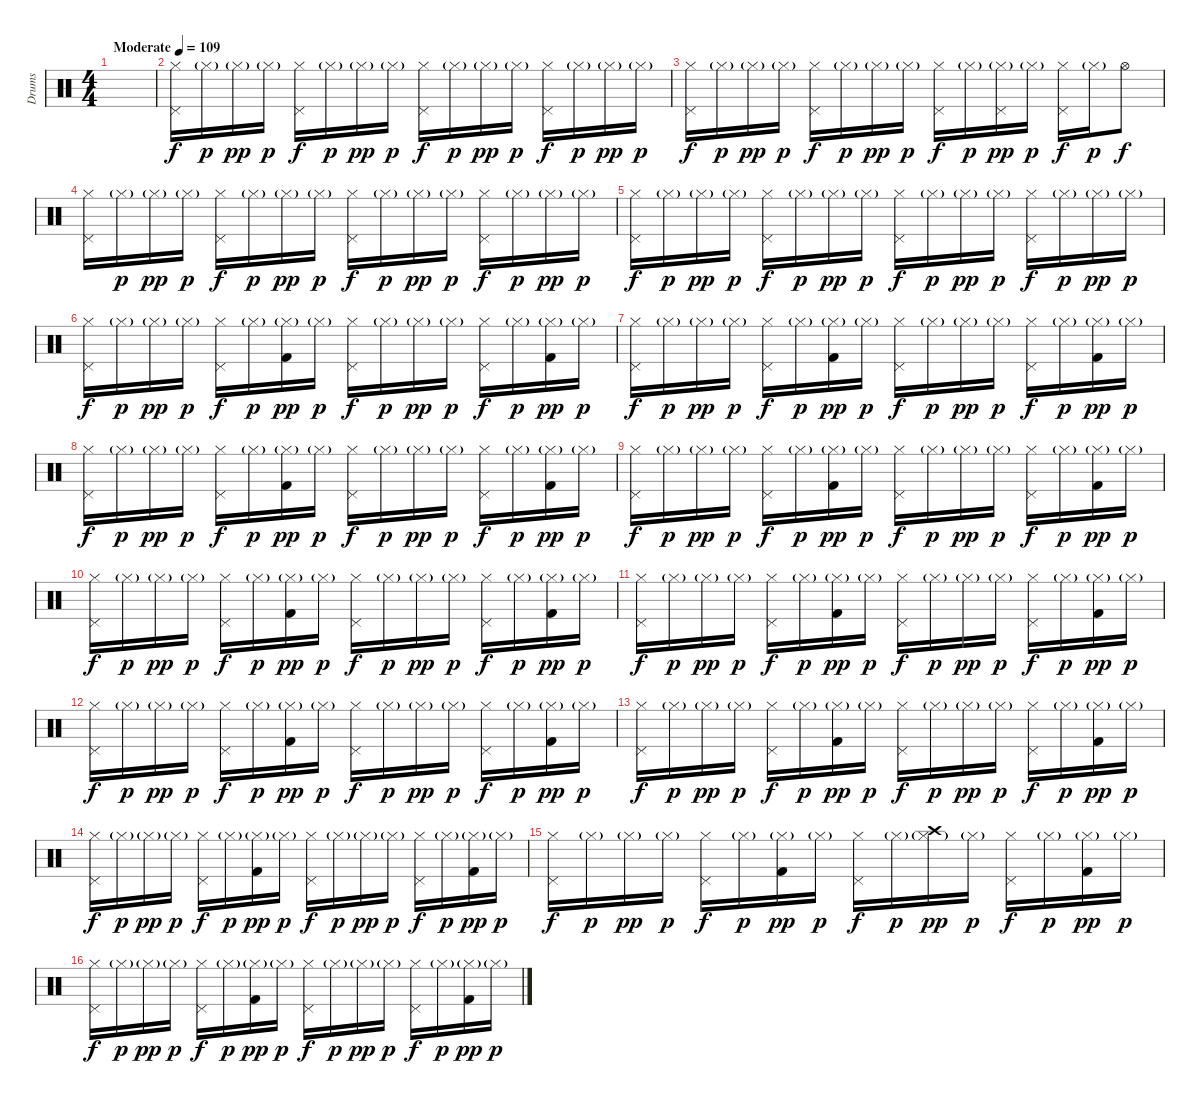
\track ("Drums" "Drums") {instrument percussion}
\staff {score}
\articulation defaults
\ts (4 4)
\tempo (109 "Moderate")
\clef neutral
\ks c
|
("Hi-Hat (closed)" "Pedal Hi-Hat (hit)").16 "Hi-Hat (closed)"{g}.16{dy p} "Hi-Hat (closed)"{g}.16{dy pp} "Hi-Hat (closed)"{g}.16{dy p} ("Hi-Hat (closed)" "Pedal Hi-Hat (hit)").16{dy f} "Hi-Hat (closed)"{g}.16{dy p} "Hi-Hat (closed)"{g}.16{dy pp} "Hi-Hat (closed)"{g}.16{dy p} ("Hi-Hat (closed)" "Pedal Hi-Hat (hit)").16{dy f} "Hi-Hat (closed)"{g}.16{dy p} "Hi-Hat (closed)"{g}.16{dy pp} "Hi-Hat (closed)"{g}.16{dy p} ("Hi-Hat (closed)" "Pedal Hi-Hat (hit)").16{dy f} "Hi-Hat (closed)"{g}.16{dy p} "Hi-Hat (closed)"{g}.16{dy pp} "Hi-Hat (closed)"{g}.16{dy p} |
("Hi-Hat (closed)" "Pedal Hi-Hat (hit)").16{dy f} "Hi-Hat (closed)"{g}.16{dy p} "Hi-Hat (closed)"{g}.16{dy pp} "Hi-Hat (closed)"{g}.16{dy p} ("Hi-Hat (closed)" "Pedal Hi-Hat (hit)").16{dy f} "Hi-Hat (closed)"{g}.16{dy p} "Hi-Hat (closed)"{g}.16{dy pp} "Hi-Hat (closed)"{g}.16{dy p} ("Hi-Hat (closed)" "Pedal Hi-Hat (hit)").16{dy f} "Hi-Hat (closed)"{g}.16{dy p} ("Hi-Hat (closed)"{g} "Pedal Hi-Hat (hit)").16{dy pp} "Hi-Hat (closed)"{g}.16{dy p} ("Hi-Hat (closed)" "Pedal Hi-Hat (hit)").16{dy f} "Hi-Hat (closed)"{g}.16{dy p} "Hi-Hat (open)".8{dy f} |
("Hi-Hat (closed)" "Pedal Hi-Hat (hit)").16 "Hi-Hat (closed)"{g}.16{dy p} "Hi-Hat (closed)"{g}.16{dy pp} "Hi-Hat (closed)"{g}.16{dy p} ("Hi-Hat (closed)" "Pedal Hi-Hat (hit)").16{dy f} "Hi-Hat (closed)"{g}.16{dy p} "Hi-Hat (closed)"{g}.16{dy pp} "Hi-Hat (closed)"{g}.16{dy p} ("Hi-Hat (closed)" "Pedal Hi-Hat (hit)").16{dy f} "Hi-Hat (closed)"{g}.16{dy p} "Hi-Hat (closed)"{g}.16{dy pp} "Hi-Hat (closed)"{g}.16{dy p} ("Hi-Hat (closed)" "Pedal Hi-Hat (hit)").16{dy f} "Hi-Hat (closed)"{g}.16{dy p} "Hi-Hat (closed)"{g}.16{dy pp} "Hi-Hat (closed)"{g}.16{dy p} |
("Hi-Hat (closed)" "Pedal Hi-Hat (hit)").16{dy f} "Hi-Hat (closed)"{g}.16{dy p} "Hi-Hat (closed)"{g}.16{dy pp} "Hi-Hat (closed)"{g}.16{dy p} ("Hi-Hat (closed)" "Pedal Hi-Hat (hit)").16{dy f} "Hi-Hat (closed)"{g}.16{dy p} "Hi-Hat (closed)"{g}.16{dy pp} "Hi-Hat (closed)"{g}.16{dy p} ("Hi-Hat (closed)" "Pedal Hi-Hat (hit)").16{dy f} "Hi-Hat (closed)"{g}.16{dy p} "Hi-Hat (closed)"{g}.16{dy pp} "Hi-Hat (closed)"{g}.16{dy p} ("Hi-Hat (closed)" "Pedal Hi-Hat (hit)").16{dy f} "Hi-Hat (closed)"{g}.16{dy p} "Hi-Hat (closed)"{g}.16{dy pp} "Hi-Hat (closed)"{g}.16{dy p} |
("Hi-Hat (closed)" "Pedal Hi-Hat (hit)").16{dy f} "Hi-Hat (closed)"{g}.16{dy p} "Hi-Hat (closed)"{g}.16{dy pp} "Hi-Hat (closed)"{g}.16{dy p} ("Hi-Hat (closed)" "Pedal Hi-Hat (hit)").16{dy f} "Hi-Hat (closed)"{g}.16{dy p} ("Hi-Hat (closed)"{g} "Kick (hit) 2").16{dy pp} "Hi-Hat (closed)"{g}.16{dy p} ("Hi-Hat (closed)" "Pedal Hi-Hat (hit)").16{dy f} "Hi-Hat (closed)"{g}.16{dy p} "Hi-Hat (closed)"{g}.16{dy pp} "Hi-Hat (closed)"{g}.16{dy p} ("Hi-Hat (closed)" "Pedal Hi-Hat (hit)").16{dy f} "Hi-Hat (closed)"{g}.16{dy p} ("Hi-Hat (closed)"{g} "Kick (hit) 2").16{dy pp} "Hi-Hat (closed)"{g}.16{dy p} |
("Hi-Hat (closed)" "Pedal Hi-Hat (hit)").16{dy f} "Hi-Hat (closed)"{g}.16{dy p} "Hi-Hat (closed)"{g}.16{dy pp} "Hi-Hat (closed)"{g}.16{dy p} ("Hi-Hat (closed)" "Pedal Hi-Hat (hit)").16{dy f} "Hi-Hat (closed)"{g}.16{dy p} ("Hi-Hat (closed)"{g} "Kick (hit) 2").16{dy pp} "Hi-Hat (closed)"{g}.16{dy p} ("Hi-Hat (closed)" "Pedal Hi-Hat (hit)").16{dy f} "Hi-Hat (closed)"{g}.16{dy p} "Hi-Hat (closed)"{g}.16{dy pp} "Hi-Hat (closed)"{g}.16{dy p} ("Hi-Hat (closed)" "Pedal Hi-Hat (hit)").16{dy f} "Hi-Hat (closed)"{g}.16{dy p} ("Hi-Hat (closed)"{g} "Kick (hit) 2").16{dy pp} "Hi-Hat (closed)"{g}.16{dy p} |
("Hi-Hat (closed)" "Pedal Hi-Hat (hit)").16{dy f} "Hi-Hat (closed)"{g}.16{dy p} "Hi-Hat (closed)"{g}.16{dy pp} "Hi-Hat (closed)"{g}.16{dy p} ("Hi-Hat (closed)" "Pedal Hi-Hat (hit)").16{dy f} "Hi-Hat (closed)"{g}.16{dy p} ("Hi-Hat (closed)"{g} "Kick (hit) 2").16{dy pp} "Hi-Hat (closed)"{g}.16{dy p} ("Hi-Hat (closed)" "Pedal Hi-Hat (hit)").16{dy f} "Hi-Hat (closed)"{g}.16{dy p} "Hi-Hat (closed)"{g}.16{dy pp} "Hi-Hat (closed)"{g}.16{dy p} ("Hi-Hat (closed)" "Pedal Hi-Hat (hit)").16{dy f} "Hi-Hat (closed)"{g}.16{dy p} ("Hi-Hat (closed)"{g} "Kick (hit) 2").16{dy pp} "Hi-Hat (closed)"{g}.16{dy p} |
("Hi-Hat (closed)" "Pedal Hi-Hat (hit)").16{dy f} "Hi-Hat (closed)"{g}.16{dy p} "Hi-Hat (closed)"{g}.16{dy pp} "Hi-Hat (closed)"{g}.16{dy p} ("Hi-Hat (closed)" "Pedal Hi-Hat (hit)").16{dy f} "Hi-Hat (closed)"{g}.16{dy p} ("Hi-Hat (closed)"{g} "Kick (hit) 2").16{dy pp} "Hi-Hat (closed)"{g}.16{dy p} ("Hi-Hat (closed)" "Pedal Hi-Hat (hit)").16{dy f} "Hi-Hat (closed)"{g}.16{dy p} "Hi-Hat (closed)"{g}.16{dy pp} "Hi-Hat (closed)"{g}.16{dy p} ("Hi-Hat (closed)" "Pedal Hi-Hat (hit)").16{dy f} "Hi-Hat (closed)"{g}.16{dy p} ("Hi-Hat (closed)"{g} "Kick (hit) 2").16{dy pp} "Hi-Hat (closed)"{g}.16{dy p} |
("Hi-Hat (closed)" "Pedal Hi-Hat (hit)").16{dy f} "Hi-Hat (closed)"{g}.16{dy p} "Hi-Hat (closed)"{g}.16{dy pp} "Hi-Hat (closed)"{g}.16{dy p} ("Hi-Hat (closed)" "Pedal Hi-Hat (hit)").16{dy f} "Hi-Hat (closed)"{g}.16{dy p} ("Hi-Hat (closed)"{g} "Kick (hit) 2").16{dy pp} "Hi-Hat (closed)"{g}.16{dy p} ("Hi-Hat (closed)" "Pedal Hi-Hat (hit)").16{dy f} "Hi-Hat (closed)"{g}.16{dy p} "Hi-Hat (closed)"{g}.16{dy pp} "Hi-Hat (closed)"{g}.16{dy p} ("Hi-Hat (closed)" "Pedal Hi-Hat (hit)").16{dy f} "Hi-Hat (closed)"{g}.16{dy p} ("Hi-Hat (closed)"{g} "Kick (hit) 2").16{dy pp} "Hi-Hat (closed)"{g}.16{dy p} |
("Hi-Hat (closed)" "Pedal Hi-Hat (hit)").16{dy f} "Hi-Hat (closed)"{g}.16{dy p} "Hi-Hat (closed)"{g}.16{dy pp} "Hi-Hat (closed)"{g}.16{dy p} ("Hi-Hat (closed)" "Pedal Hi-Hat (hit)").16{dy f} "Hi-Hat (closed)"{g}.16{dy p} ("Hi-Hat (closed)"{g} "Kick (hit) 2").16{dy pp} "Hi-Hat (closed)"{g}.16{dy p} ("Hi-Hat (closed)" "Pedal Hi-Hat (hit)").16{dy f} "Hi-Hat (closed)"{g}.16{dy p} "Hi-Hat (closed)"{g}.16{dy pp} "Hi-Hat (closed)"{g}.16{dy p} ("Hi-Hat (closed)" "Pedal Hi-Hat (hit)").16{dy f} "Hi-Hat (closed)"{g}.16{dy p} ("Hi-Hat (closed)"{g} "Kick (hit) 2").16{dy pp} "Hi-Hat (closed)"{g}.16{dy p} |
("Hi-Hat (closed)" "Pedal Hi-Hat (hit)").16{dy f} "Hi-Hat (closed)"{g}.16{dy p} "Hi-Hat (closed)"{g}.16{dy pp} "Hi-Hat (closed)"{g}.16{dy p} ("Hi-Hat (closed)" "Pedal Hi-Hat (hit)").16{dy f} "Hi-Hat (closed)"{g}.16{dy p} ("Hi-Hat (closed)"{g} "Kick (hit) 2").16{dy pp} "Hi-Hat (closed)"{g}.16{dy p} ("Hi-Hat (closed)" "Pedal Hi-Hat (hit)").16{dy f} "Hi-Hat (closed)"{g}.16{dy p} "Hi-Hat (closed)"{g}.16{dy pp} "Hi-Hat (closed)"{g}.16{dy p} ("Hi-Hat (closed)" "Pedal Hi-Hat (hit)").16{dy f} "Hi-Hat (closed)"{g}.16{dy p} ("Hi-Hat (closed)"{g} "Kick (hit) 2").16{dy pp} "Hi-Hat (closed)"{g}.16{dy p} |
("Hi-Hat (closed)" "Pedal Hi-Hat (hit)").16{dy f} "Hi-Hat (closed)"{g}.16{dy p} "Hi-Hat (closed)"{g}.16{dy pp} "Hi-Hat (closed)"{g}.16{dy p} ("Hi-Hat (closed)" "Pedal Hi-Hat (hit)").16{dy f} "Hi-Hat (closed)"{g}.16{dy p} ("Hi-Hat (closed)"{g} "Kick (hit) 2").16{dy pp} "Hi-Hat (closed)"{g}.16{dy p} ("Hi-Hat (closed)" "Pedal Hi-Hat (hit)").16{dy f} "Hi-Hat (closed)"{g}.16{dy p} "Hi-Hat (closed)"{g}.16{dy pp} "Hi-Hat (closed)"{g}.16{dy p} ("Hi-Hat (closed)" "Pedal Hi-Hat (hit)").16{dy f} "Hi-Hat (closed)"{g}.16{dy p} ("Hi-Hat (closed)"{g} "Kick (hit) 2").16{dy pp} "Hi-Hat (closed)"{g}.16{dy p} |
("Hi-Hat (closed)" "Pedal Hi-Hat (hit)").16{dy f} "Hi-Hat (closed)"{g}.16{dy p} "Hi-Hat (closed)"{g}.16{dy pp} "Hi-Hat (closed)"{g}.16{dy p} ("Hi-Hat (closed)" "Pedal Hi-Hat (hit)").16{dy f} "Hi-Hat (closed)"{g}.16{dy p} ("Hi-Hat (closed)"{g} "Kick (hit) 2").16{dy pp} "Hi-Hat (closed)"{g}.16{dy p} ("Hi-Hat (closed)" "Pedal Hi-Hat (hit)").16{dy f} "Hi-Hat (closed)"{g}.16{dy p} "Hi-Hat (closed)"{g}.16{dy pp} "Hi-Hat (closed)"{g}.16{dy p} ("Hi-Hat (closed)" "Pedal Hi-Hat (hit)").16{dy f} "Hi-Hat (closed)"{g}.16{dy p} ("Hi-Hat (closed)"{g} "Kick (hit) 2").16{dy pp} "Hi-Hat (closed)"{g}.16{dy p} |
("Hi-Hat (closed)" "Pedal Hi-Hat (hit)").16{dy f} "Hi-Hat (closed)"{g}.16{dy p} "Hi-Hat (closed)"{g}.16{dy pp} "Hi-Hat (closed)"{g}.16{dy p} ("Hi-Hat (closed)" "Pedal Hi-Hat (hit)").16{dy f} "Hi-Hat (closed)"{g}.16{dy p} ("Hi-Hat (closed)"{g} "Kick (hit) 2").16{dy pp} "Hi-Hat (closed)"{g}.16{dy p} ("Hi-Hat (closed)" "Pedal Hi-Hat (hit)").16{dy f} "Hi-Hat (closed)"{g}.16{dy p} ("Hi-Hat (closed)"{g} "Crash high (hit)").16{dy pp} "Hi-Hat (closed)"{g}.16{dy p} ("Hi-Hat (closed)" "Pedal Hi-Hat (hit)").16{dy f} "Hi-Hat (closed)"{g}.16{dy p} ("Hi-Hat (closed)"{g} "Kick (hit) 2").16{dy pp} "Hi-Hat (closed)"{g}.16{dy p} |
("Hi-Hat (closed)" "Pedal Hi-Hat (hit)").16{dy f} "Hi-Hat (closed)"{g}.16{dy p} "Hi-Hat (closed)"{g}.16{dy pp} "Hi-Hat (closed)"{g}.16{dy p} ("Hi-Hat (closed)" "Pedal Hi-Hat (hit)").16{dy f} "Hi-Hat (closed)"{g}.16{dy p} ("Hi-Hat (closed)"{g} "Kick (hit) 2").16{dy pp} "Hi-Hat (closed)"{g}.16{dy p} ("Hi-Hat (closed)" "Pedal Hi-Hat (hit)").16{dy f} "Hi-Hat (closed)"{g}.16{dy p} "Hi-Hat (closed)"{g}.16{dy pp} "Hi-Hat (closed)"{g}.16{dy p} ("Hi-Hat (closed)" "Pedal Hi-Hat (hit)").16{dy f} "Hi-Hat (closed)"{g}.16{dy p} ("Hi-Hat (closed)"{g} "Kick (hit) 2").16{dy pp} "Hi-Hat (closed)"{g}.16{dy p}
